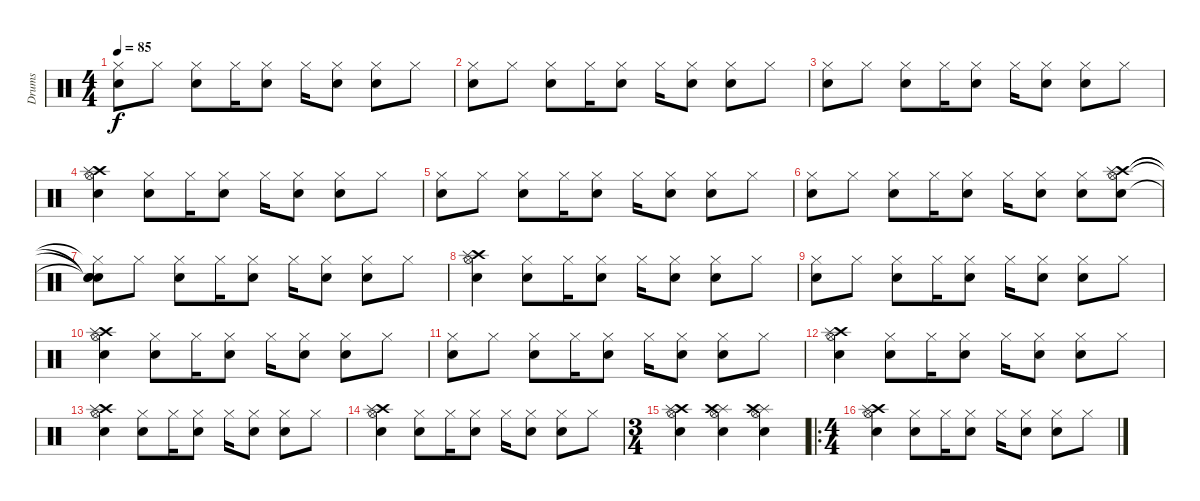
\track ("Drums" "Drums") {instrument percussion}
\staff {score}
\articulation defaults
\ts (4 4)
\tempo 85
\clef neutral
\ks c
("Hi-Hat (closed)" "Snare (hit) 2").8{dy f} "Hi-Hat (closed)".8 ("Hi-Hat (closed)" "Snare (hit) 2").8 "Hi-Hat (closed)".16 ("Hi-Hat (closed)" "Snare (hit) 2").8 "Hi-Hat (closed)".16 ("Hi-Hat (closed)" "Snare (hit) 2").8 ("Hi-Hat (closed)" "Snare (hit) 2").8 "Hi-Hat (closed)".8 |
("Hi-Hat (closed)" "Snare (hit) 2").8 "Hi-Hat (closed)".8 ("Hi-Hat (closed)" "Snare (hit) 2").8 "Hi-Hat (closed)".16 ("Hi-Hat (closed)" "Snare (hit) 2").8 "Hi-Hat (closed)".16 ("Hi-Hat (closed)" "Snare (hit) 2").8 ("Hi-Hat (closed)" "Snare (hit) 2").8 "Hi-Hat (closed)".8 |
("Hi-Hat (closed)" "Snare (hit) 2").8 "Hi-Hat (closed)".8 ("Hi-Hat (closed)" "Snare (hit) 2").8 "Hi-Hat (closed)".16 ("Hi-Hat (closed)" "Snare (hit) 2").8 "Hi-Hat (closed)".16 ("Hi-Hat (closed)" "Snare (hit) 2").8 ("Hi-Hat (closed)" "Snare (hit) 2").8 "Hi-Hat (closed)".8 |
("Crash high (hit)" "Splash (hit)" "Snare (hit) 2" "Hi-Hat (open)").4 ("Hi-Hat (closed)" "Snare (hit) 2").8 "Hi-Hat (closed)".16 ("Hi-Hat (closed)" "Snare (hit) 2").8 "Hi-Hat (closed)".16 ("Hi-Hat (closed)" "Snare (hit) 2").8 ("Hi-Hat (closed)" "Snare (hit) 2").8 "Hi-Hat (closed)".8 |
("Hi-Hat (closed)" "Snare (hit) 2").8 "Hi-Hat (closed)".8 ("Hi-Hat (closed)" "Snare (hit) 2").8 "Hi-Hat (closed)".16 ("Hi-Hat (closed)" "Snare (hit) 2").8 "Hi-Hat (closed)".16 ("Hi-Hat (closed)" "Snare (hit) 2").8 ("Hi-Hat (closed)" "Snare (hit) 2").8 "Hi-Hat (closed)".8 |
("Hi-Hat (closed)" "Snare (hit) 2").8 "Hi-Hat (closed)".8 ("Hi-Hat (closed)" "Snare (hit) 2").8 "Hi-Hat (closed)".16 ("Hi-Hat (closed)" "Snare (hit) 2").8 "Hi-Hat (closed)".16 ("Hi-Hat (closed)" "Snare (hit) 2").8 ("Hi-Hat (closed)" "Snare (hit) 2").8 ("Crash high (hit)" "Splash (hit)" "Snare (hit) 2" "Hi-Hat (open)").8 |
("Hi-Hat (closed)"{t} "Snare (hit) 2"{t} "Snare (hit) 2"{t} "Snare (hit)"{t}).8 "Hi-Hat (closed)".8 ("Hi-Hat (closed)" "Snare (hit) 2").8 "Hi-Hat (closed)".16 ("Hi-Hat (closed)" "Snare (hit) 2").8 "Hi-Hat (closed)".16 ("Hi-Hat (closed)" "Snare (hit) 2").8 ("Hi-Hat (closed)" "Snare (hit) 2").8 "Hi-Hat (closed)".8 |
("Crash high (hit)" "Splash (hit)" "Snare (hit) 2" "Hi-Hat (open)").4 ("Hi-Hat (closed)" "Snare (hit) 2").8 "Hi-Hat (closed)".16 ("Hi-Hat (closed)" "Snare (hit) 2").8 "Hi-Hat (closed)".16 ("Hi-Hat (closed)" "Snare (hit) 2").8 ("Hi-Hat (closed)" "Snare (hit) 2").8 "Hi-Hat (closed)".8 |
("Hi-Hat (closed)" "Snare (hit) 2").8 "Hi-Hat (closed)".8 ("Hi-Hat (closed)" "Snare (hit) 2").8 "Hi-Hat (closed)".16 ("Hi-Hat (closed)" "Snare (hit) 2").8 "Hi-Hat (closed)".16 ("Hi-Hat (closed)" "Snare (hit) 2").8 ("Hi-Hat (closed)" "Snare (hit) 2").8 "Hi-Hat (closed)".8 |
("Crash high (hit)" "Splash (hit)" "Snare (hit) 2" "Hi-Hat (open)").4 ("Hi-Hat (closed)" "Snare (hit) 2").8 "Hi-Hat (closed)".16 ("Hi-Hat (closed)" "Snare (hit) 2").8 "Hi-Hat (closed)".16 ("Hi-Hat (closed)" "Snare (hit) 2").8 ("Hi-Hat (closed)" "Snare (hit) 2").8 "Hi-Hat (closed)".8 |
("Hi-Hat (closed)" "Snare (hit) 2").8 "Hi-Hat (closed)".8 ("Hi-Hat (closed)" "Snare (hit) 2").8 "Hi-Hat (closed)".16 ("Hi-Hat (closed)" "Snare (hit) 2").8 "Hi-Hat (closed)".16 ("Hi-Hat (closed)" "Snare (hit) 2").8 ("Hi-Hat (closed)" "Snare (hit) 2").8 "Hi-Hat (closed)".8 |
("Crash high (hit)" "Splash (hit)" "Snare (hit) 2" "Hi-Hat (open)").4 ("Hi-Hat (closed)" "Snare (hit) 2").8 "Hi-Hat (closed)".16 ("Hi-Hat (closed)" "Snare (hit) 2").8 "Hi-Hat (closed)".16 ("Hi-Hat (closed)" "Snare (hit) 2").8 ("Hi-Hat (closed)" "Snare (hit) 2").8 "Hi-Hat (closed)".8 |
("Crash high (hit)" "Splash (hit)" "Snare (hit) 2" "Hi-Hat (open)").4 ("Hi-Hat (closed)" "Snare (hit) 2").8 "Hi-Hat (closed)".16 ("Hi-Hat (closed)" "Snare (hit) 2").8 "Hi-Hat (closed)".16 ("Hi-Hat (closed)" "Snare (hit) 2").8 ("Hi-Hat (closed)" "Snare (hit) 2").8 "Hi-Hat (closed)".8 |
("Crash high (hit)" "Splash (hit)" "Snare (hit) 2" "Hi-Hat (open)").4 ("Hi-Hat (closed)" "Snare (hit) 2").8 "Hi-Hat (closed)".16 ("Hi-Hat (closed)" "Snare (hit) 2").8 "Hi-Hat (closed)".16 ("Hi-Hat (closed)" "Snare (hit) 2").8 ("Hi-Hat (closed)" "Snare (hit) 2").8 "Hi-Hat (closed)".8 |
\ts (3 4)
("Crash high (hit)" "Splash (hit)" "Snare (hit) 2" "Hi-Hat (open)").4 ("Splash (hit)" "Hi-Hat (open)" "Crash high (hit)" "Snare (hit) 2").4 ("Hi-Hat (open)" "Snare (hit) 2" "Splash (hit)" "Crash high (hit)").4 |
\ro
\ts (4 4)
("Crash high (hit)" "Splash (hit)" "Snare (hit) 2" "Hi-Hat (open)").4 ("Hi-Hat (closed)" "Snare (hit) 2").8 "Hi-Hat (closed)".16 ("Hi-Hat (closed)" "Snare (hit) 2").8 "Hi-Hat (closed)".16 ("Hi-Hat (closed)" "Snare (hit) 2").8 ("Hi-Hat (closed)" "Snare (hit) 2").8 "Hi-Hat (closed)".8
